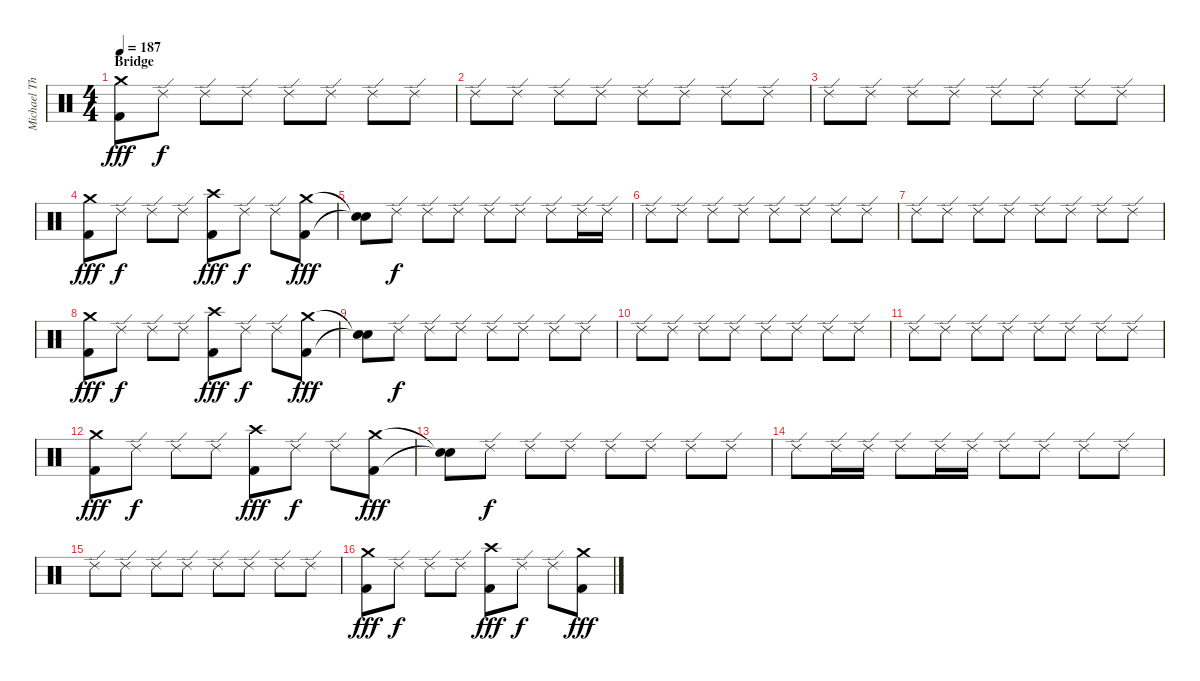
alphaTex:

\track ("Michael Thomas" "Michael Th") {instrument percussion}
\staff {score}
\articulation defaults
\ts (4 4)
\section ("" "Bridge")
\tempo 187
\clef neutral
\ks c
("Crash medium (hit)" "Kick (hit) 2").8{dy fff} "Ride (edge) 2".8{dy f} "Ride (edge) 2".8 "Ride (edge) 2".8 "Ride (edge) 2".8 "Ride (edge) 2".8 "Ride (edge) 2".8 "Ride (edge) 2".8 |
"Ride (edge) 2".8 "Ride (edge) 2".8 "Ride (edge) 2".8 "Ride (edge) 2".8 "Ride (edge) 2".8 "Ride (edge) 2".8 "Ride (edge) 2".8 "Ride (edge) 2".8 |
"Ride (edge) 2".8 "Ride (edge) 2".8 "Ride (edge) 2".8 "Ride (edge) 2".8 "Ride (edge) 2".8 "Ride (edge) 2".8 "Ride (edge) 2".8 "Ride (edge) 2".8 |
("Crash medium (hit)" "Kick (hit) 2").8{dy fff} "Ride (edge) 2".8{dy f} "Ride (edge) 2".8 "Ride (edge) 2".8 ("Crash high (hit)" "Kick (hit) 2").8{dy fff} "Ride (edge) 2".8{dy f} "Ride (edge) 2".8 ("Crash medium (hit)" "Kick (hit) 2").8{dy fff} |
("Snare (hit)"{t} "Snare (hit)"{t}).8 "Ride (edge) 2".8{dy f} "Ride (edge) 2".8 "Ride (edge) 2".8 "Ride (edge) 2".8 "Ride (edge) 2".8 "Ride (edge) 2".8 "Ride (edge) 2".16 "Ride (edge) 2".16 |
"Ride (edge) 2".8 "Ride (edge) 2".8 "Ride (edge) 2".8 "Ride (edge) 2".8 "Ride (edge) 2".8 "Ride (edge) 2".8 "Ride (edge) 2".8 "Ride (edge) 2".8 |
"Ride (edge) 2".8 "Ride (edge) 2".8 "Ride (edge) 2".8 "Ride (edge) 2".8 "Ride (edge) 2".8 "Ride (edge) 2".8 "Ride (edge) 2".8 "Ride (edge) 2".8 |
("Crash medium (hit)" "Kick (hit) 2").8{dy fff} "Ride (edge) 2".8{dy f} "Ride (edge) 2".8 "Ride (edge) 2".8 ("Crash high (hit)" "Kick (hit) 2").8{dy fff} "Ride (edge) 2".8{dy f} "Ride (edge) 2".8 ("Crash medium (hit)" "Kick (hit) 2").8{dy fff} |
("Snare (hit)"{t} "Snare (hit)"{t}).8 "Ride (edge) 2".8{dy f} "Ride (edge) 2".8 "Ride (edge) 2".8 "Ride (edge) 2".8 "Ride (edge) 2".8 "Ride (edge) 2".8 "Ride (edge) 2".8 |
"Ride (edge) 2".8 "Ride (edge) 2".8 "Ride (edge) 2".8 "Ride (edge) 2".8 "Ride (edge) 2".8 "Ride (edge) 2".8 "Ride (edge) 2".8 "Ride (edge) 2".8 |
"Ride (edge) 2".8 "Ride (edge) 2".8 "Ride (edge) 2".8 "Ride (edge) 2".8 "Ride (edge) 2".8 "Ride (edge) 2".8 "Ride (edge) 2".8 "Ride (edge) 2".8 |
("Crash medium (hit)" "Kick (hit) 2").8{dy fff} "Ride (edge) 2".8{dy f} "Ride (edge) 2".8 "Ride (edge) 2".8 ("Crash high (hit)" "Kick (hit) 2").8{dy fff} "Ride (edge) 2".8{dy f} "Ride (edge) 2".8 ("Crash medium (hit)" "Kick (hit) 2").8{dy fff} |
("Snare (hit)"{t} "Snare (hit)"{t}).8 "Ride (edge) 2".8{dy f} "Ride (edge) 2".8 "Ride (edge) 2".8 "Ride (edge) 2".8 "Ride (edge) 2".8 "Ride (edge) 2".8 "Ride (edge) 2".8 |
"Ride (edge) 2".8 "Ride (edge) 2".16 "Ride (edge) 2".16 "Ride (edge) 2".8 "Ride (edge) 2".16 "Ride (edge) 2".16 "Ride (edge) 2".8 "Ride (edge) 2".8 "Ride (edge) 2".8 "Ride (edge) 2".8 |
"Ride (edge) 2".8 "Ride (edge) 2".8 "Ride (edge) 2".8 "Ride (edge) 2".8 "Ride (edge) 2".8 "Ride (edge) 2".8 "Ride (edge) 2".8 "Ride (edge) 2".8 |
("Crash medium (hit)" "Kick (hit) 2").8{dy fff} "Ride (edge) 2".8{dy f} "Ride (edge) 2".8 "Ride (edge) 2".8 ("Crash high (hit)" "Kick (hit) 2").8{dy fff} "Ride (edge) 2".8{dy f} "Ride (edge) 2".8 ("Crash medium (hit)" "Kick (hit) 2").8{dy fff}
